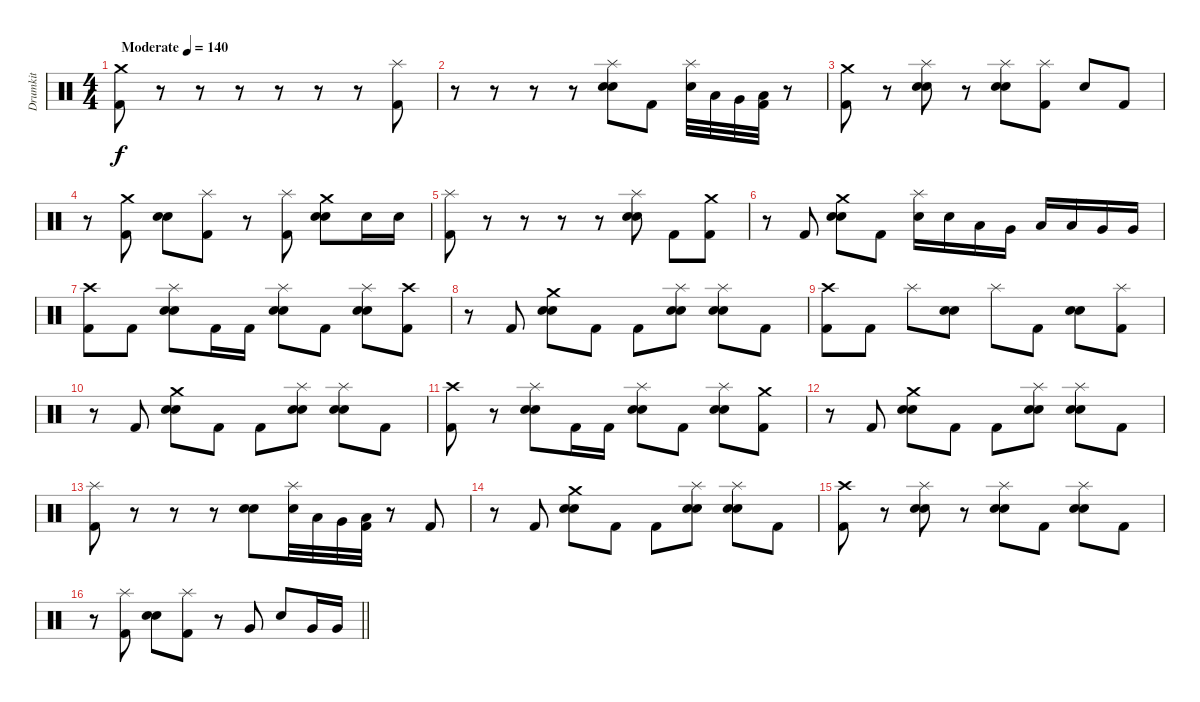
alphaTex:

\track ("Drumkit" "Drumkit") {instrument percussion}
\staff {score}
\articulation defaults
\ts (4 4)
\tempo (140 "Moderate")
\clef neutral
\ks c
("Crash medium (hit)" "Kick (hit) 2").8{dy f} r.8 r.8 r.8 r.8 r.8 r.8 ("Splash (hit)" "Kick (hit) 2").8 |
r.8 r.8 r.8 r.8 ("Splash (hit)" "Electric Snare (hit)" "Snare (hit) 2").8 "Kick (hit) 2".8 ("Splash (hit)" "Electric Snare (hit)").32 "Low Tom (hit)".32 "Very Low Tom (hit)".32 ("Low Floor Tom (hit)" "Kick (hit) 2").32 r.8 |
("Crash medium (hit)" "Kick (hit) 2").8 r.8 ("Splash (hit)" "Electric Snare (hit)" "Snare (hit) 2").8 r.8 ("Splash (hit)" "Electric Snare (hit)" "Snare (hit) 2").8 ("Splash (hit)" "Kick (hit) 2").8 "Electric Snare (hit)".8 "Kick (hit) 2".8 |
r.8 ("Crash medium (hit)" "Kick (hit) 2").8 ("Electric Snare (hit)" "Snare (hit) 2").8 ("Splash (hit)" "Kick (hit) 2").8 r.8 ("Splash (hit)" "Kick (hit) 2").8 ("Crash medium (hit)" "Electric Snare (hit)" "Snare (hit) 2").8 "Electric Snare (hit)".16 "Electric Snare (hit)".16 |
("Splash (hit)" "Kick (hit) 2").8 r.8 r.8 r.8 r.8 ("Splash (hit)" "Electric Snare (hit)" "Snare (hit) 2").8 "Kick (hit) 2".8 ("Crash medium (hit)" "Kick (hit) 2").8 |
r.8 "Kick (hit) 2".8 ("Crash medium (hit)" "Electric Snare (hit)" "Snare (hit) 2").8 "Kick (hit) 2".8 ("Splash (hit)" "Electric Snare (hit)").16 "Electric Snare (hit)".16 "Low Tom (hit)".16 "Very Low Tom (hit)".16 "Low Tom (hit)".16 "Low Tom (hit)".16 "Very Low Tom (hit)".16 "Very Low Tom (hit)".16 |
("Crash high (hit)" "Kick (hit) 2").8 "Kick (hit) 2".8 ("Splash (hit)" "Electric Snare (hit)" "Snare (hit) 2").8 "Kick (hit) 2".16 "Kick (hit) 2".16 ("Splash (hit)" "Electric Snare (hit)" "Snare (hit) 2").8 "Kick (hit) 2".8 ("Splash (hit)" "Electric Snare (hit)" "Snare (hit) 2").8 ("Crash high (hit)" "Kick (hit) 2").8 |
r.8 "Kick (hit) 2".8 ("Crash medium (hit)" "Electric Snare (hit)" "Snare (hit) 2").8 "Kick (hit) 2".8 "Kick (hit) 2".8 ("Splash (hit)" "Electric Snare (hit)" "Snare (hit) 2").8 ("Splash (hit)" "Electric Snare (hit)" "Snare (hit) 2").8 "Kick (hit) 2".8 |
("Crash high (hit)" "Kick (hit) 2").8 "Kick (hit) 2".8 "Splash (hit)".8 ("Electric Snare (hit)" "Snare (hit) 2").8 "Splash (hit)".8 "Kick (hit) 2".8 ("Electric Snare (hit)" "Snare (hit) 2").8 ("Splash (hit)" "Kick (hit) 2").8 |
r.8 "Kick (hit) 2".8 ("Crash medium (hit)" "Electric Snare (hit)" "Snare (hit) 2").8 "Kick (hit) 2".8 "Kick (hit) 2".8 ("Splash (hit)" "Electric Snare (hit)" "Snare (hit) 2").8 ("Splash (hit)" "Electric Snare (hit)" "Snare (hit) 2").8 "Kick (hit) 2".8 |
("Crash high (hit)" "Kick (hit) 2").8 r.8 ("Splash (hit)" "Electric Snare (hit)" "Snare (hit) 2").8 "Kick (hit) 2".16 "Kick (hit) 2".16 ("Splash (hit)" "Electric Snare (hit)" "Snare (hit) 2").8 "Kick (hit) 2".8 ("Splash (hit)" "Electric Snare (hit)" "Snare (hit) 2").8 ("Crash medium (hit)" "Kick (hit) 2").8 |
r.8 "Kick (hit) 2".8 ("Crash medium (hit)" "Electric Snare (hit)" "Snare (hit) 2").8 "Kick (hit) 2".8 "Kick (hit) 2".8 ("Splash (hit)" "Electric Snare (hit)" "Snare (hit) 2").8 ("Splash (hit)" "Electric Snare (hit)" "Snare (hit) 2").8 "Kick (hit) 2".8 |
("Splash (hit)" "Kick (hit) 2").8 r.8 r.8 r.8 ("Electric Snare (hit)" "Snare (hit) 2").8 ("Splash (hit)" "Electric Snare (hit)").32 "Low Tom (hit)".32 "Very Low Tom (hit)".32 ("Low Floor Tom (hit)" "Kick (hit) 2").32 r.8 "Kick (hit) 2".8 |
r.8 "Kick (hit) 2".8 ("Crash medium (hit)" "Electric Snare (hit)" "Snare (hit) 2").8 "Kick (hit) 2".8 "Kick (hit) 2".8 ("Splash (hit)" "Electric Snare (hit)" "Snare (hit) 2").8 ("Splash (hit)" "Electric Snare (hit)" "Snare (hit) 2").8 "Kick (hit) 2".8 |
("Crash high (hit)" "Kick (hit) 2").8 r.8 ("Splash (hit)" "Electric Snare (hit)" "Snare (hit) 2").8 r.8 ("Splash (hit)" "Electric Snare (hit)" "Snare (hit) 2").8 "Kick (hit) 2".8 ("Splash (hit)" "Electric Snare (hit)" "Snare (hit) 2").8 "Kick (hit) 2".8 |
\barLineRight lightlight
r.8 ("Splash (hit)" "Kick (hit) 2").8 ("Electric Snare (hit)" "Snare (hit) 2").8 ("Splash (hit)" "Kick (hit) 2").8 r.8 "Very Low Tom (hit)".8 "Electric Snare (hit)".8 "Very Low Tom (hit)".16 "Very Low Tom (hit)".16
